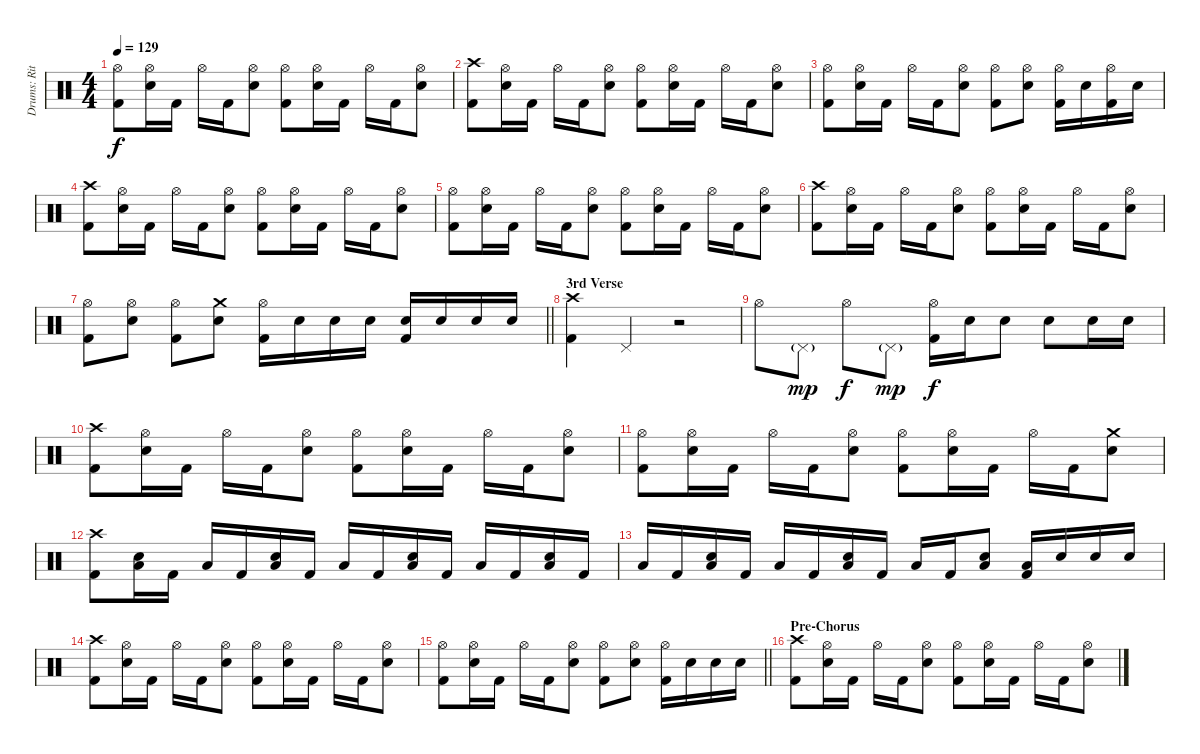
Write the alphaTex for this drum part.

\track ("Drums: Ritsu Tainaka" "Drums: Rit") {instrument percussion}
\staff {score}
\articulation defaults
\ts (4 4)
\tempo 129
\clef neutral
\ks c
("Hi-Hat (open)" "Kick (hit) 2").8{dy f} ("Hi-Hat (open)" "Electric Snare (hit)").16 "Kick (hit) 2".16 "Hi-Hat (open)".16 "Kick (hit) 2".16 ("Hi-Hat (open)" "Electric Snare (hit)").8 ("Hi-Hat (open)" "Kick (hit) 2").8 ("Hi-Hat (open)" "Electric Snare (hit)").16 "Kick (hit) 2".16 "Hi-Hat (open)".16 "Kick (hit) 2".16 ("Hi-Hat (open)" "Electric Snare (hit)").8 |
("Crash high (hit)" "Kick (hit) 2").8 ("Hi-Hat (open)" "Electric Snare (hit)").16 "Kick (hit) 2".16 "Hi-Hat (open)".16 "Kick (hit) 2".16 ("Hi-Hat (open)" "Electric Snare (hit)").8 ("Hi-Hat (open)" "Kick (hit) 2").8 ("Hi-Hat (open)" "Electric Snare (hit)").16 "Kick (hit) 2".16 "Hi-Hat (open)".16 "Kick (hit) 2".16 ("Hi-Hat (open)" "Electric Snare (hit)").8 |
("Hi-Hat (open)" "Kick (hit) 2").8 ("Hi-Hat (open)" "Electric Snare (hit)").16 "Kick (hit) 2".16 "Hi-Hat (open)".16 "Kick (hit) 2".16 ("Hi-Hat (open)" "Electric Snare (hit)").8 ("Hi-Hat (open)" "Kick (hit) 2").8 ("Hi-Hat (open)" "Electric Snare (hit)").8 ("Hi-Hat (open)" "Kick (hit) 2").16 "Electric Snare (hit)".16 ("Hi-Hat (open)" "Kick (hit) 2").16 "Electric Snare (hit)".16 |
("Crash high (hit)" "Kick (hit) 2").8 ("Hi-Hat (open)" "Electric Snare (hit)").16 "Kick (hit) 2".16 "Hi-Hat (open)".16 "Kick (hit) 2".16 ("Hi-Hat (open)" "Electric Snare (hit)").8 ("Hi-Hat (open)" "Kick (hit) 2").8 ("Hi-Hat (open)" "Electric Snare (hit)").16 "Kick (hit) 2".16 "Hi-Hat (open)".16 "Kick (hit) 2".16 ("Hi-Hat (open)" "Electric Snare (hit)").8 |
("Hi-Hat (open)" "Kick (hit) 2").8 ("Hi-Hat (open)" "Electric Snare (hit)").16 "Kick (hit) 2".16 "Hi-Hat (open)".16 "Kick (hit) 2".16 ("Hi-Hat (open)" "Electric Snare (hit)").8 ("Hi-Hat (open)" "Kick (hit) 2").8 ("Hi-Hat (open)" "Electric Snare (hit)").16 "Kick (hit) 2".16 "Hi-Hat (open)".16 "Kick (hit) 2".16 ("Hi-Hat (open)" "Electric Snare (hit)").8 |
("Crash high (hit)" "Kick (hit) 2").8 ("Hi-Hat (open)" "Electric Snare (hit)").16 "Kick (hit) 2".16 "Hi-Hat (open)".16 "Kick (hit) 2".16 ("Hi-Hat (open)" "Electric Snare (hit)").8 ("Hi-Hat (open)" "Kick (hit) 2").8 ("Hi-Hat (open)" "Electric Snare (hit)").16 "Kick (hit) 2".16 "Hi-Hat (open)".16 "Kick (hit) 2".16 ("Hi-Hat (open)" "Electric Snare (hit)").8 |
\barLineRight lightlight
("Hi-Hat (open)" "Kick (hit) 2").8 ("Hi-Hat (open)" "Electric Snare (hit)").8 ("Hi-Hat (open)" "Kick (hit) 2").8 ("Crash medium (hit)" "Electric Snare (hit)").8 ("Hi-Hat (open)" "Kick (hit) 2").16 "Electric Snare (hit)".16 "Electric Snare (hit)".16 "Electric Snare (hit)".16 ("Electric Snare (hit)" "Kick (hit) 2").16 "Electric Snare (hit)".16 "Electric Snare (hit)".16 "Electric Snare (hit)".16 |
\section ("" "3rd Verse")
("Crash high (hit)" "Kick (hit) 2").4 "Pedal Hi-Hat (hit)".4 r.2 |
"Hi-Hat (open)".8 "Pedal Hi-Hat (hit)"{g}.8{dy mp} "Hi-Hat (open)".8{dy f} "Pedal Hi-Hat (hit)"{g}.8{dy mp} ("Hi-Hat (open)" "Kick (hit) 2").16{dy f} "Electric Snare (hit)".16 "Electric Snare (hit)".8 "Electric Snare (hit)".8 "Electric Snare (hit)".16 "Electric Snare (hit)".16 |
("Crash high (hit)" "Kick (hit) 2").8 ("Hi-Hat (open)" "Electric Snare (hit)").16 "Kick (hit) 2".16 "Hi-Hat (open)".16 "Kick (hit) 2".16 ("Hi-Hat (open)" "Electric Snare (hit)").8 ("Hi-Hat (open)" "Kick (hit) 2").8 ("Hi-Hat (open)" "Electric Snare (hit)").16 "Kick (hit) 2".16 "Hi-Hat (open)".16 "Kick (hit) 2".16 ("Hi-Hat (open)" "Electric Snare (hit)").8 |
("Hi-Hat (open)" "Kick (hit) 2").8 ("Hi-Hat (open)" "Electric Snare (hit)").16 "Kick (hit) 2".16 "Hi-Hat (open)".16 "Kick (hit) 2".16 ("Hi-Hat (open)" "Electric Snare (hit)").8 ("Hi-Hat (open)" "Kick (hit) 2").8 ("Hi-Hat (open)" "Electric Snare (hit)").16 "Kick (hit) 2".16 "Hi-Hat (open)".16 "Kick (hit) 2".16 ("Crash medium (hit)" "Electric Snare (hit)").8 |
("Crash high (hit)" "Kick (hit) 2").8 ("Electric Snare (hit)" "Low Floor Tom (hit)").16 "Kick (hit) 2".16 "Low Floor Tom (hit)".16 "Kick (hit) 2".16 ("Electric Snare (hit)" "Low Floor Tom (hit)").16 "Kick (hit) 2".16 "Low Floor Tom (hit)".16 "Kick (hit) 2".16 ("Electric Snare (hit)" "Low Floor Tom (hit)").16 "Kick (hit) 2".16 "Low Floor Tom (hit)".16 "Kick (hit) 2".16 ("Electric Snare (hit)" "Low Floor Tom (hit)").16 "Kick (hit) 2".16 |
"Low Floor Tom (hit)".16 "Kick (hit) 2".16 ("Electric Snare (hit)" "Low Floor Tom (hit)").16 "Kick (hit) 2".16 "Low Floor Tom (hit)".16 "Kick (hit) 2".16 ("Electric Snare (hit)" "Low Floor Tom (hit)").16 "Kick (hit) 2".16 "Low Floor Tom (hit)".16 "Kick (hit) 2".16 ("Electric Snare (hit)" "Low Floor Tom (hit)").8 ("Low Floor Tom (hit)" "Kick (hit) 2").16 "Electric Snare (hit)".16 "Electric Snare (hit)".16 "Electric Snare (hit)".16 |
("Crash high (hit)" "Kick (hit) 2").8 ("Hi-Hat (open)" "Electric Snare (hit)").16 "Kick (hit) 2".16 "Hi-Hat (open)".16 "Kick (hit) 2".16 ("Hi-Hat (open)" "Electric Snare (hit)").8 ("Hi-Hat (open)" "Kick (hit) 2").8 ("Hi-Hat (open)" "Electric Snare (hit)").16 "Kick (hit) 2".16 "Hi-Hat (open)".16 "Kick (hit) 2".16 ("Hi-Hat (open)" "Electric Snare (hit)").8 |
\barLineRight lightlight
("Hi-Hat (open)" "Kick (hit) 2").8 ("Hi-Hat (open)" "Electric Snare (hit)").16 "Kick (hit) 2".16 "Hi-Hat (open)".16 "Kick (hit) 2".16 ("Hi-Hat (open)" "Electric Snare (hit)").8 ("Hi-Hat (open)" "Kick (hit) 2").8 ("Hi-Hat (open)" "Electric Snare (hit)").8 ("Hi-Hat (open)" "Kick (hit) 2").16 "Electric Snare (hit)".16 "Electric Snare (hit)".16 "Electric Snare (hit)".16 |
\section ("" "Pre-Chorus")
("Crash high (hit)" "Kick (hit) 2").8 ("Hi-Hat (open)" "Electric Snare (hit)").16 "Kick (hit) 2".16 "Hi-Hat (open)".16 "Kick (hit) 2".16 ("Hi-Hat (open)" "Electric Snare (hit)").8 ("Hi-Hat (open)" "Kick (hit) 2").8 ("Hi-Hat (open)" "Electric Snare (hit)").16 "Kick (hit) 2".16 "Hi-Hat (open)".16 "Kick (hit) 2".16 ("Hi-Hat (open)" "Electric Snare (hit)").8
